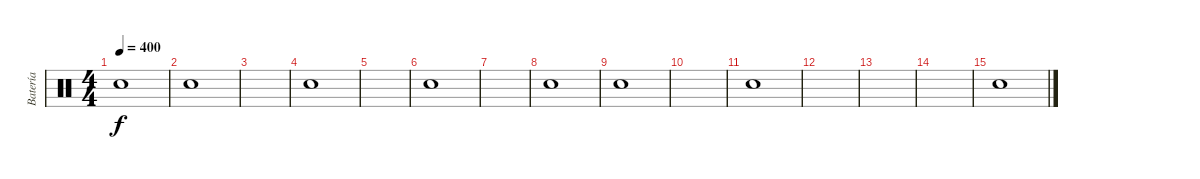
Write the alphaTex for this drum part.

\track ("Batería" "Batería") {instrument percussion}
\staff {score}
\articulation defaults
\ts (4 4)
\tempo 400
\clef neutral
\ks c "Snare (hit)".1{dy f}
|
"Snare (hit)".1 |
|
"Snare (hit)".1 |
|
"Snare (hit)".1 |
|
"Snare (hit)".1 |
"Snare (hit)".1 |
|
"Snare (hit)".1 |
|
|
|
"Snare (hit)".1
